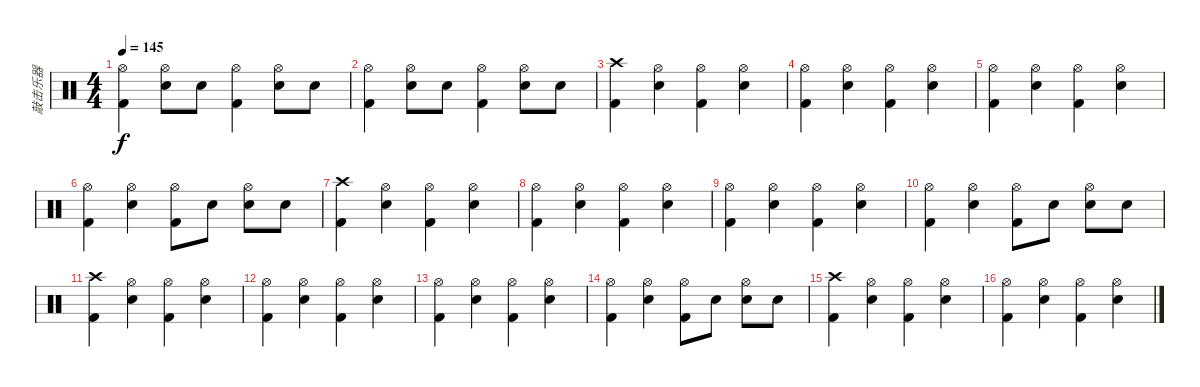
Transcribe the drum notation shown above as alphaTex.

\track ("敲击乐器" "敲击乐器") {instrument percussion}
\staff {score}
\articulation defaults
\ts (4 4)
\tempo 145
\clef neutral
\ks c
("Hi-Hat (open)" "Kick (hit) 2").4{dy f} ("Hi-Hat (open)" "Snare (hit) 2").8 "Snare (hit) 2".8 ("Hi-Hat (open)" "Kick (hit) 2").4 ("Hi-Hat (open)" "Snare (hit) 2").8 "Snare (hit) 2".8 |
("Hi-Hat (open)" "Kick (hit) 2").4 ("Hi-Hat (open)" "Snare (hit) 2").8 "Snare (hit) 2".8 ("Hi-Hat (open)" "Kick (hit) 2").4 ("Hi-Hat (open)" "Snare (hit) 2").8 "Snare (hit) 2".8 |
("Crash high (hit)" "Kick (hit) 2").4 ("Hi-Hat (open)" "Snare (hit) 2").4 ("Hi-Hat (open)" "Kick (hit) 2").4 ("Hi-Hat (open)" "Snare (hit) 2").4 |
("Hi-Hat (open)" "Kick (hit) 2").4 ("Hi-Hat (open)" "Snare (hit) 2").4 ("Hi-Hat (open)" "Kick (hit) 2").4 ("Hi-Hat (open)" "Snare (hit) 2").4 |
("Hi-Hat (open)" "Kick (hit) 2").4 ("Hi-Hat (open)" "Snare (hit) 2").4 ("Hi-Hat (open)" "Kick (hit) 2").4 ("Hi-Hat (open)" "Snare (hit) 2").4 |
("Hi-Hat (open)" "Kick (hit) 2").4 ("Hi-Hat (open)" "Snare (hit) 2").4 ("Hi-Hat (open)" "Kick (hit) 2").8 "Snare (hit) 2".8 ("Hi-Hat (open)" "Snare (hit) 2").8 "Snare (hit) 2".8 |
("Crash high (hit)" "Kick (hit) 2").4 ("Hi-Hat (open)" "Snare (hit) 2").4 ("Hi-Hat (open)" "Kick (hit) 2").4 ("Hi-Hat (open)" "Snare (hit) 2").4 |
("Hi-Hat (open)" "Kick (hit) 2").4 ("Hi-Hat (open)" "Snare (hit) 2").4 ("Hi-Hat (open)" "Kick (hit) 2").4 ("Hi-Hat (open)" "Snare (hit) 2").4 |
("Hi-Hat (open)" "Kick (hit) 2").4 ("Hi-Hat (open)" "Snare (hit) 2").4 ("Hi-Hat (open)" "Kick (hit) 2").4 ("Hi-Hat (open)" "Snare (hit) 2").4 |
("Hi-Hat (open)" "Kick (hit) 2").4 ("Hi-Hat (open)" "Snare (hit) 2").4 ("Hi-Hat (open)" "Kick (hit) 2").8 "Snare (hit) 2".8 ("Hi-Hat (open)" "Snare (hit) 2").8 "Snare (hit) 2".8 |
("Crash high (hit)" "Kick (hit) 2").4 ("Hi-Hat (open)" "Snare (hit) 2").4 ("Hi-Hat (open)" "Kick (hit) 2").4 ("Hi-Hat (open)" "Snare (hit) 2").4 |
("Hi-Hat (open)" "Kick (hit) 2").4 ("Hi-Hat (open)" "Snare (hit) 2").4 ("Hi-Hat (open)" "Kick (hit) 2").4 ("Hi-Hat (open)" "Snare (hit) 2").4 |
("Hi-Hat (open)" "Kick (hit) 2").4 ("Hi-Hat (open)" "Snare (hit) 2").4 ("Hi-Hat (open)" "Kick (hit) 2").4 ("Hi-Hat (open)" "Snare (hit) 2").4 |
("Hi-Hat (open)" "Kick (hit) 2").4 ("Hi-Hat (open)" "Snare (hit) 2").4 ("Hi-Hat (open)" "Kick (hit) 2").8 "Snare (hit) 2".8 ("Hi-Hat (open)" "Snare (hit) 2").8 "Snare (hit) 2".8 |
("Crash high (hit)" "Kick (hit) 2").4 ("Hi-Hat (open)" "Snare (hit) 2").4 ("Hi-Hat (open)" "Kick (hit) 2").4 ("Hi-Hat (open)" "Snare (hit) 2").4 |
("Hi-Hat (open)" "Kick (hit) 2").4 ("Hi-Hat (open)" "Snare (hit) 2").4 ("Hi-Hat (open)" "Kick (hit) 2").4 ("Hi-Hat (open)" "Snare (hit) 2").4
